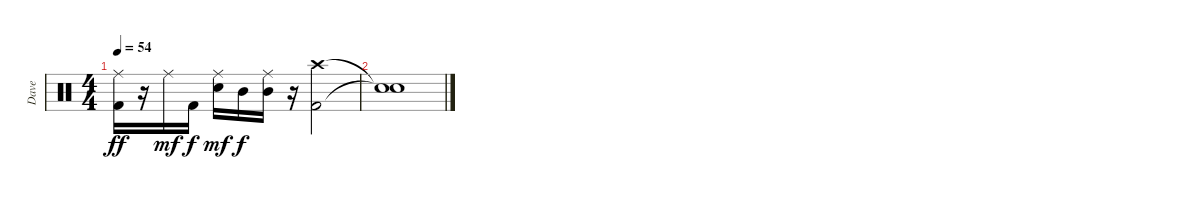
\track ("Dave" "Dave") {instrument percussion}
\staff {score}
\articulation defaults
\ts (4 4)
\tempo 54
\clef neutral
\ks c
("Ride (middle)" "Kick (hit) 2").16{dy ff} r.16 "Ride (middle)".16{dy mf} "Kick (hit) 2".16{dy f} ("Ride (middle)" "Snare (hit) 2").16{dy mf} "Mid Tom (hit)".16{dy f} ("Ride (middle)" "Mid Tom (hit)").16 r.16 ("Crash high (hit)" "Kick (hit) 2").2 |
("Snare (hit)"{t} "Snare (hit)"{t}).1
